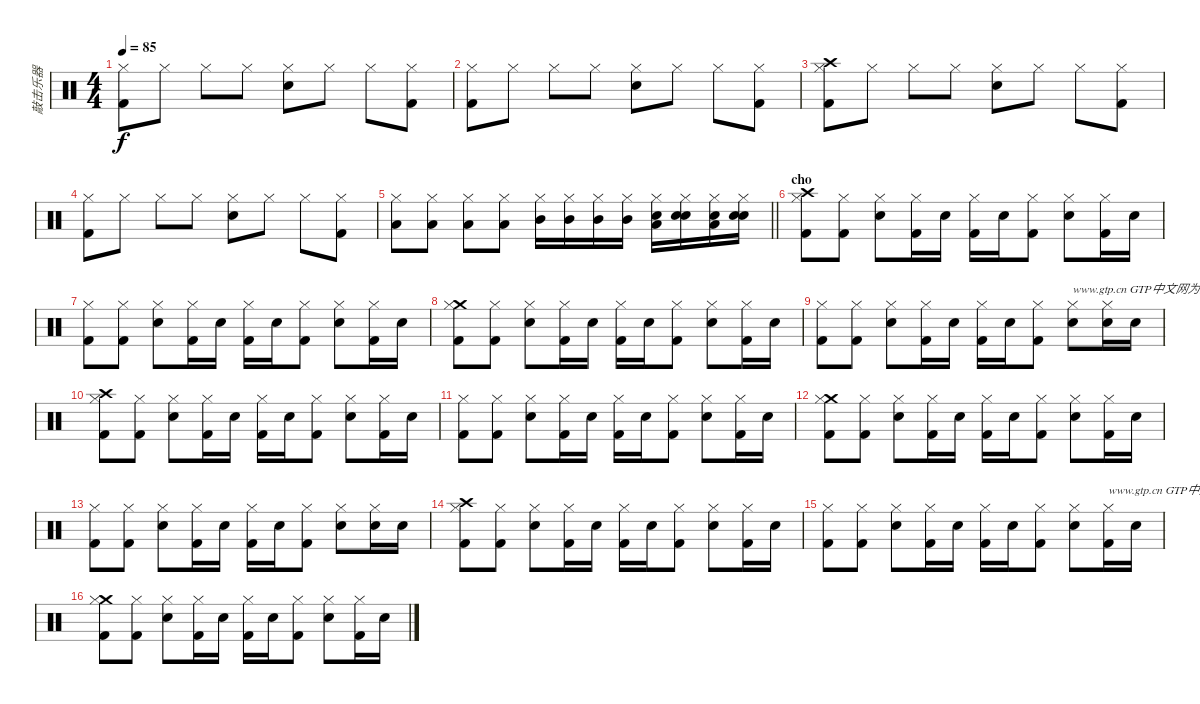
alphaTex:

\track ("敲击乐器" "敲击乐器") {instrument percussion}
\staff {score}
\articulation defaults
\ts (4 4)
\tempo 85
\clef neutral
\ks c
("Hi-Hat (closed)" "Kick (hit) 2").8{dy f} "Hi-Hat (closed)".8 "Hi-Hat (closed)".8 "Hi-Hat (closed)".8 ("Electric Snare (hit)" "Hi-Hat (closed)").8 "Hi-Hat (closed)".8 "Hi-Hat (closed)".8 ("Kick (hit) 2" "Hi-Hat (closed)").8 |
("Hi-Hat (closed)" "Kick (hit) 2").8 "Hi-Hat (closed)".8 "Hi-Hat (closed)".8 "Hi-Hat (closed)".8 ("Electric Snare (hit)" "Hi-Hat (closed)").8 "Hi-Hat (closed)".8 "Hi-Hat (closed)".8 ("Kick (hit) 2" "Hi-Hat (closed)").8 |
("Crash high (hit)" "Hi-Hat (closed)" "Kick (hit) 2").8 "Hi-Hat (closed)".8 "Hi-Hat (closed)".8 "Hi-Hat (closed)".8 ("Electric Snare (hit)" "Hi-Hat (closed)").8 "Hi-Hat (closed)".8 "Hi-Hat (closed)".8 ("Kick (hit) 2" "Hi-Hat (closed)").8 |
("Hi-Hat (closed)" "Kick (hit) 2").8 "Hi-Hat (closed)".8 "Hi-Hat (closed)".8 "Hi-Hat (closed)".8 ("Electric Snare (hit)" "Hi-Hat (closed)").8 "Hi-Hat (closed)".8 "Hi-Hat (closed)".8 ("Kick (hit) 2" "Hi-Hat (closed)").8 |
\barLineRight lightlight
("Hi-Hat (closed)" "Low Tom (hit)").8 ("Hi-Hat (closed)" "Low Tom (hit)").8 ("Hi-Hat (closed)" "Low Tom (hit)").8 ("Hi-Hat (closed)" "Low Tom (hit)").8 ("Hi-Hat (closed)" "Mid Tom (hit)").16 ("Hi-Hat (closed)" "Mid Tom (hit)").16 ("Hi-Hat (closed)" "Mid Tom (hit)").16 ("Hi-Hat (closed)" "Mid Tom (hit)").16 ("Low Tom (hit)" "Hi-Hat (closed)" "Electric Snare (hit)").16 ("Electric Snare (hit)" "Hi-Hat (closed)" "Electric Snare (hit)").16 ("Low Tom (hit)" "Hi-Hat (closed)" "Electric Snare (hit)").16 ("Electric Snare (hit)" "Hi-Hat (closed)" "Electric Snare (hit)").16 |
\section ("" "cho")
("Crash high (hit)" "Hi-Hat (closed)" "Kick (hit) 2").8 ("Hi-Hat (closed)" "Kick (hit) 2").8 ("Hi-Hat (closed)" "Electric Snare (hit)").8 ("Hi-Hat (closed)" "Kick (hit) 2").16 "Electric Snare (hit)".16 ("Hi-Hat (closed)" "Kick (hit) 2").16 "Electric Snare (hit)".16 ("Hi-Hat (closed)" "Kick (hit) 2").8 ("Hi-Hat (closed)" "Electric Snare (hit)").8 ("Hi-Hat (closed)" "Kick (hit) 2").16 "Electric Snare (hit)".16 |
("Hi-Hat (closed)" "Kick (hit) 2").8 ("Hi-Hat (closed)" "Kick (hit) 2").8 ("Hi-Hat (closed)" "Electric Snare (hit)").8 ("Hi-Hat (closed)" "Kick (hit) 2").16 "Electric Snare (hit)".16 ("Hi-Hat (closed)" "Kick (hit) 2").16 "Electric Snare (hit)".16 ("Hi-Hat (closed)" "Kick (hit) 2").8 ("Hi-Hat (closed)" "Electric Snare (hit)").8 ("Hi-Hat (closed)" "Kick (hit) 2").16 "Electric Snare (hit)".16 |
("Crash medium (hit)" "Hi-Hat (closed)" "Kick (hit) 2").8 ("Hi-Hat (closed)" "Kick (hit) 2").8 ("Hi-Hat (closed)" "Electric Snare (hit)").8 ("Hi-Hat (closed)" "Kick (hit) 2").16 "Electric Snare (hit)".16 ("Hi-Hat (closed)" "Kick (hit) 2").16 "Electric Snare (hit)".16 ("Hi-Hat (closed)" "Kick (hit) 2").8 ("Hi-Hat (closed)" "Electric Snare (hit)").8 ("Hi-Hat (closed)" "Kick (hit) 2").16 "Electric Snare (hit)".16 |
("Hi-Hat (closed)" "Kick (hit) 2").8 ("Hi-Hat (closed)" "Kick (hit) 2").8 ("Hi-Hat (closed)" "Electric Snare (hit)").8 ("Hi-Hat (closed)" "Kick (hit) 2").16 "Electric Snare (hit)".16 ("Hi-Hat (closed)" "Kick (hit) 2").16 "Electric Snare (hit)".16 ("Hi-Hat (closed)" "Kick (hit) 2").8 ("Hi-Hat (closed)" "Electric Snare (hit)").8{txt "www.gtp.cn GTP中文网为您提供优秀的谱子"} ("Hi-Hat (closed)" "Electric Snare (hit)").16 "Electric Snare (hit)".16 |
("Crash high (hit)" "Hi-Hat (closed)" "Kick (hit) 2").8 ("Hi-Hat (closed)" "Kick (hit) 2").8 ("Hi-Hat (closed)" "Electric Snare (hit)").8 ("Hi-Hat (closed)" "Kick (hit) 2").16 "Electric Snare (hit)".16 ("Hi-Hat (closed)" "Kick (hit) 2").16 "Electric Snare (hit)".16 ("Hi-Hat (closed)" "Kick (hit) 2").8 ("Hi-Hat (closed)" "Electric Snare (hit)").8 ("Hi-Hat (closed)" "Kick (hit) 2").16 "Electric Snare (hit)".16 |
("Hi-Hat (closed)" "Kick (hit) 2").8 ("Hi-Hat (closed)" "Kick (hit) 2").8 ("Hi-Hat (closed)" "Electric Snare (hit)").8 ("Hi-Hat (closed)" "Kick (hit) 2").16 "Electric Snare (hit)".16 ("Hi-Hat (closed)" "Kick (hit) 2").16 "Electric Snare (hit)".16 ("Hi-Hat (closed)" "Kick (hit) 2").8 ("Hi-Hat (closed)" "Electric Snare (hit)").8 ("Hi-Hat (closed)" "Kick (hit) 2").16 "Electric Snare (hit)".16 |
("Crash medium (hit)" "Hi-Hat (closed)" "Kick (hit) 2").8 ("Hi-Hat (closed)" "Kick (hit) 2").8 ("Hi-Hat (closed)" "Electric Snare (hit)").8 ("Hi-Hat (closed)" "Kick (hit) 2").16 "Electric Snare (hit)".16 ("Hi-Hat (closed)" "Kick (hit) 2").16 "Electric Snare (hit)".16 ("Hi-Hat (closed)" "Kick (hit) 2").8 ("Hi-Hat (closed)" "Electric Snare (hit)").8 ("Hi-Hat (closed)" "Kick (hit) 2").16 "Electric Snare (hit)".16 |
("Hi-Hat (closed)" "Kick (hit) 2").8 ("Hi-Hat (closed)" "Kick (hit) 2").8 ("Hi-Hat (closed)" "Electric Snare (hit)").8 ("Hi-Hat (closed)" "Kick (hit) 2").16 "Electric Snare (hit)".16 ("Hi-Hat (closed)" "Kick (hit) 2").16 "Electric Snare (hit)".16 ("Hi-Hat (closed)" "Kick (hit) 2").8 ("Hi-Hat (closed)" "Electric Snare (hit)").8 ("Hi-Hat (closed)" "Electric Snare (hit)").16 "Electric Snare (hit)".16 |
("Crash high (hit)" "Hi-Hat (closed)" "Kick (hit) 2").8 ("Hi-Hat (closed)" "Kick (hit) 2").8 ("Hi-Hat (closed)" "Electric Snare (hit)").8 ("Hi-Hat (closed)" "Kick (hit) 2").16 "Electric Snare (hit)".16 ("Hi-Hat (closed)" "Kick (hit) 2").16 "Electric Snare (hit)".16 ("Hi-Hat (closed)" "Kick (hit) 2").8 ("Hi-Hat (closed)" "Electric Snare (hit)").8 ("Hi-Hat (closed)" "Kick (hit) 2").16 "Electric Snare (hit)".16 |
("Hi-Hat (closed)" "Kick (hit) 2").8 ("Hi-Hat (closed)" "Kick (hit) 2").8 ("Hi-Hat (closed)" "Electric Snare (hit)").8 ("Hi-Hat (closed)" "Kick (hit) 2").16 "Electric Snare (hit)".16 ("Hi-Hat (closed)" "Kick (hit) 2").16 "Electric Snare (hit)".16 ("Hi-Hat (closed)" "Kick (hit) 2").8 ("Hi-Hat (closed)" "Electric Snare (hit)").8 ("Hi-Hat (closed)" "Kick (hit) 2").16{txt "www.gtp.cn GTP中文网为您提供优秀的谱子"} "Electric Snare (hit)".16 |
("Crash medium (hit)" "Hi-Hat (closed)" "Kick (hit) 2").8 ("Hi-Hat (closed)" "Kick (hit) 2").8 ("Hi-Hat (closed)" "Electric Snare (hit)").8 ("Hi-Hat (closed)" "Kick (hit) 2").16 "Electric Snare (hit)".16 ("Hi-Hat (closed)" "Kick (hit) 2").16 "Electric Snare (hit)".16 ("Hi-Hat (closed)" "Kick (hit) 2").8 ("Hi-Hat (closed)" "Electric Snare (hit)").8 ("Hi-Hat (closed)" "Kick (hit) 2").16 "Electric Snare (hit)".16
